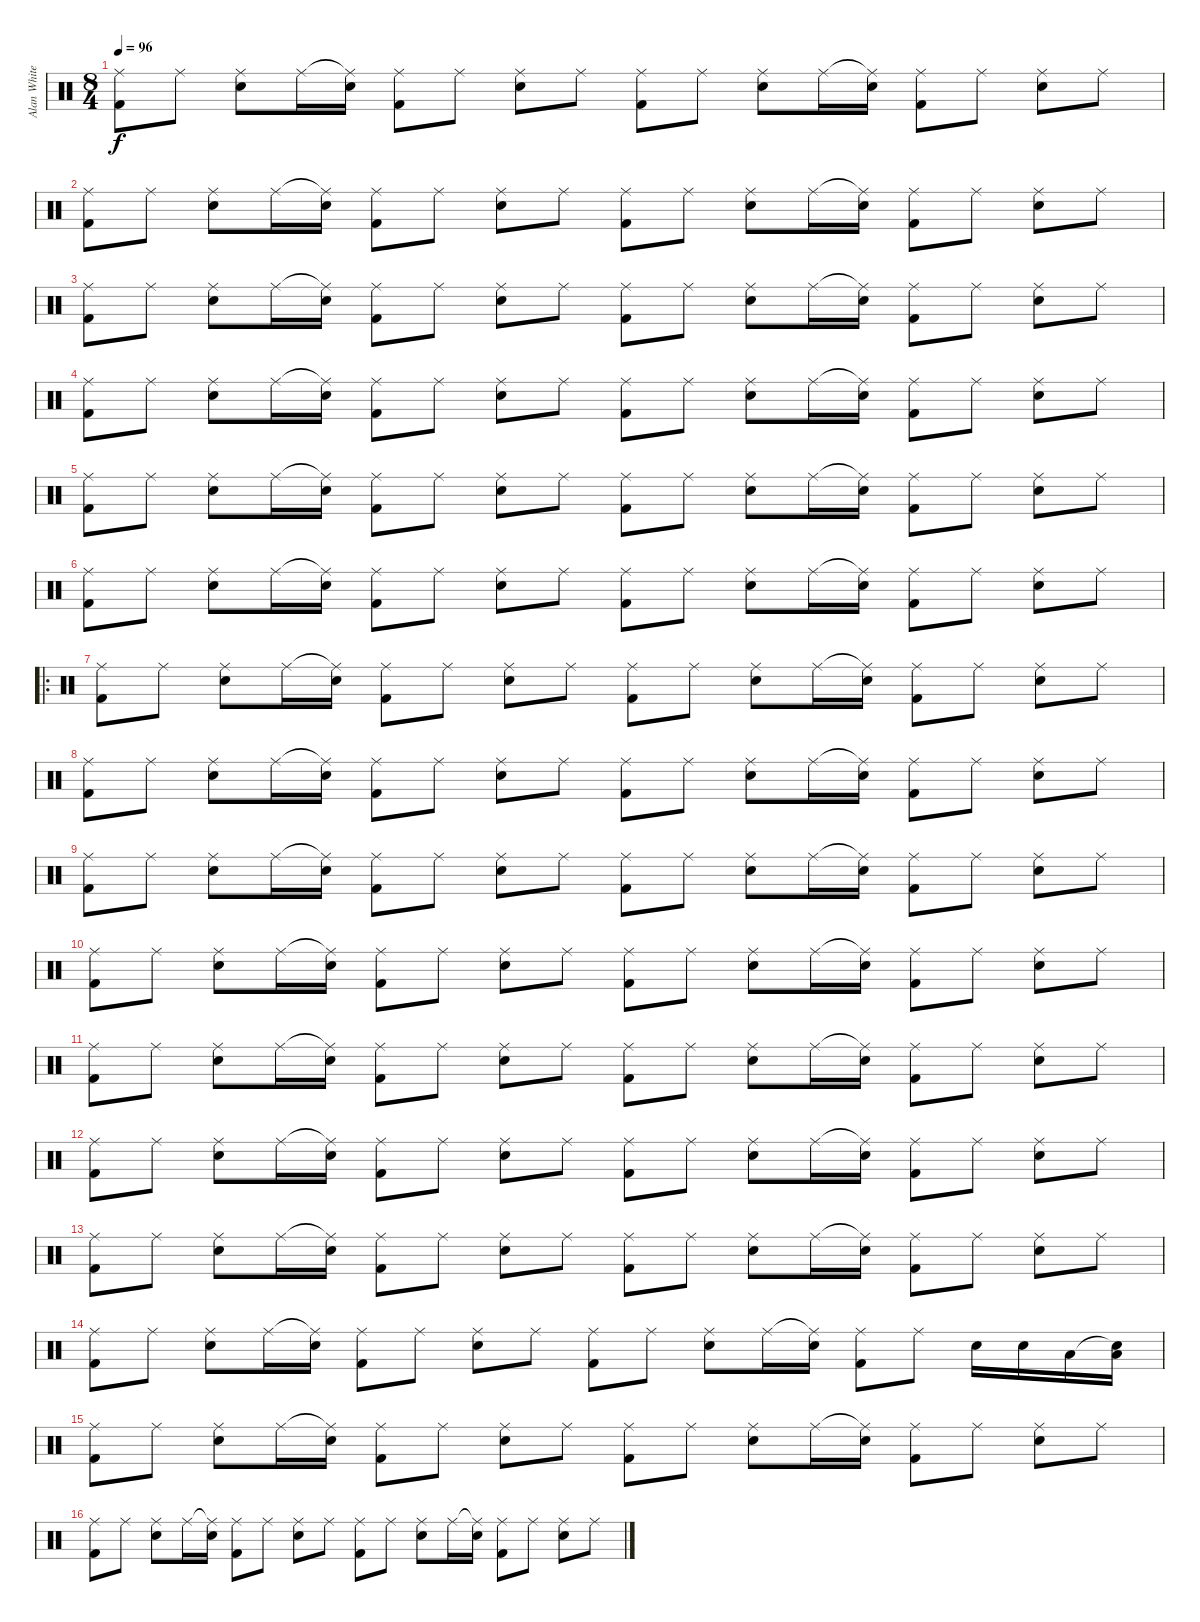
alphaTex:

\track ("Alan White" "Alan White") {instrument percussion}
\staff {score}
\articulation defaults
\ts (8 4)
\tempo 96
\clef neutral
\ks c
("Ride (middle)" "Kick (hit) 2").8{dy f} "Ride (middle)".8 ("Ride (middle)" "Electric Snare (hit)").8 "Ride (middle)".16 ("Ride (middle)"{t} "Electric Snare (hit)").16 ("Ride (middle)" "Kick (hit) 2").8 "Ride (middle)".8 ("Ride (middle)" "Electric Snare (hit)").8 "Ride (middle)".8 ("Ride (middle)" "Kick (hit) 2").8 "Ride (middle)".8 ("Ride (middle)" "Electric Snare (hit)").8 "Ride (middle)".16 ("Ride (middle)"{t} "Electric Snare (hit)").16 ("Ride (middle)" "Kick (hit) 2").8 "Ride (middle)".8 ("Ride (middle)" "Electric Snare (hit)").8 "Ride (middle)".8 |
("Ride (middle)" "Kick (hit) 2").8 "Ride (middle)".8 ("Ride (middle)" "Electric Snare (hit)").8 "Ride (middle)".16 ("Ride (middle)"{t} "Electric Snare (hit)").16 ("Ride (middle)" "Kick (hit) 2").8 "Ride (middle)".8 ("Ride (middle)" "Electric Snare (hit)").8 "Ride (middle)".8 ("Ride (middle)" "Kick (hit) 2").8 "Ride (middle)".8 ("Ride (middle)" "Electric Snare (hit)").8 "Ride (middle)".16 ("Ride (middle)"{t} "Electric Snare (hit)").16 ("Ride (middle)" "Kick (hit) 2").8 "Ride (middle)".8 ("Ride (middle)" "Electric Snare (hit)").8 "Ride (middle)".8 |
("Ride (middle)" "Kick (hit) 2").8 "Ride (middle)".8 ("Ride (middle)" "Electric Snare (hit)").8 "Ride (middle)".16 ("Ride (middle)"{t} "Electric Snare (hit)").16 ("Ride (middle)" "Kick (hit) 2").8 "Ride (middle)".8 ("Ride (middle)" "Electric Snare (hit)").8 "Ride (middle)".8 ("Ride (middle)" "Kick (hit) 2").8 "Ride (middle)".8 ("Ride (middle)" "Electric Snare (hit)").8 "Ride (middle)".16 ("Ride (middle)"{t} "Electric Snare (hit)").16 ("Ride (middle)" "Kick (hit) 2").8 "Ride (middle)".8 ("Ride (middle)" "Electric Snare (hit)").8 "Ride (middle)".8 |
("Ride (middle)" "Kick (hit) 2").8 "Ride (middle)".8 ("Ride (middle)" "Electric Snare (hit)").8 "Ride (middle)".16 ("Ride (middle)"{t} "Electric Snare (hit)").16 ("Ride (middle)" "Kick (hit) 2").8 "Ride (middle)".8 ("Ride (middle)" "Electric Snare (hit)").8 "Ride (middle)".8 ("Ride (middle)" "Kick (hit) 2").8 "Ride (middle)".8 ("Ride (middle)" "Electric Snare (hit)").8 "Ride (middle)".16 ("Ride (middle)"{t} "Electric Snare (hit)").16 ("Ride (middle)" "Kick (hit) 2").8 "Ride (middle)".8 ("Ride (middle)" "Electric Snare (hit)").8 "Ride (middle)".8 |
("Ride (middle)" "Kick (hit) 2").8 "Ride (middle)".8 ("Ride (middle)" "Electric Snare (hit)").8 "Ride (middle)".16 ("Ride (middle)"{t} "Electric Snare (hit)").16 ("Ride (middle)" "Kick (hit) 2").8 "Ride (middle)".8 ("Ride (middle)" "Electric Snare (hit)").8 "Ride (middle)".8 ("Ride (middle)" "Kick (hit) 2").8 "Ride (middle)".8 ("Ride (middle)" "Electric Snare (hit)").8 "Ride (middle)".16 ("Ride (middle)"{t} "Electric Snare (hit)").16 ("Ride (middle)" "Kick (hit) 2").8 "Ride (middle)".8 ("Ride (middle)" "Electric Snare (hit)").8 "Ride (middle)".8 |
("Ride (middle)" "Kick (hit) 2").8 "Ride (middle)".8 ("Ride (middle)" "Electric Snare (hit)").8 "Ride (middle)".16 ("Ride (middle)"{t} "Electric Snare (hit)").16 ("Ride (middle)" "Kick (hit) 2").8 "Ride (middle)".8 ("Ride (middle)" "Electric Snare (hit)").8 "Ride (middle)".8 ("Ride (middle)" "Kick (hit) 2").8 "Ride (middle)".8 ("Ride (middle)" "Electric Snare (hit)").8 "Ride (middle)".16 ("Ride (middle)"{t} "Electric Snare (hit)").16 ("Ride (middle)" "Kick (hit) 2").8 "Ride (middle)".8 ("Ride (middle)" "Electric Snare (hit)").8 "Ride (middle)".8 |
\ro
("Ride (middle)" "Kick (hit) 2").8 "Ride (middle)".8 ("Ride (middle)" "Electric Snare (hit)").8 "Ride (middle)".16 ("Ride (middle)"{t} "Electric Snare (hit)").16 ("Ride (middle)" "Kick (hit) 2").8 "Ride (middle)".8 ("Ride (middle)" "Electric Snare (hit)").8 "Ride (middle)".8 ("Ride (middle)" "Kick (hit) 2").8 "Ride (middle)".8 ("Ride (middle)" "Electric Snare (hit)").8 "Ride (middle)".16 ("Ride (middle)"{t} "Electric Snare (hit)").16 ("Ride (middle)" "Kick (hit) 2").8 "Ride (middle)".8 ("Ride (middle)" "Electric Snare (hit)").8 "Ride (middle)".8 |
("Ride (middle)" "Kick (hit) 2").8 "Ride (middle)".8 ("Ride (middle)" "Electric Snare (hit)").8 "Ride (middle)".16 ("Ride (middle)"{t} "Electric Snare (hit)").16 ("Ride (middle)" "Kick (hit) 2").8 "Ride (middle)".8 ("Ride (middle)" "Electric Snare (hit)").8 "Ride (middle)".8 ("Ride (middle)" "Kick (hit) 2").8 "Ride (middle)".8 ("Ride (middle)" "Electric Snare (hit)").8 "Ride (middle)".16 ("Ride (middle)"{t} "Electric Snare (hit)").16 ("Ride (middle)" "Kick (hit) 2").8 "Ride (middle)".8 ("Ride (middle)" "Electric Snare (hit)").8 "Ride (middle)".8 |
("Ride (middle)" "Kick (hit) 2").8 "Ride (middle)".8 ("Ride (middle)" "Electric Snare (hit)").8 "Ride (middle)".16 ("Ride (middle)"{t} "Electric Snare (hit)").16 ("Ride (middle)" "Kick (hit) 2").8 "Ride (middle)".8 ("Ride (middle)" "Electric Snare (hit)").8 "Ride (middle)".8 ("Ride (middle)" "Kick (hit) 2").8 "Ride (middle)".8 ("Ride (middle)" "Electric Snare (hit)").8 "Ride (middle)".16 ("Ride (middle)"{t} "Electric Snare (hit)").16 ("Ride (middle)" "Kick (hit) 2").8 "Ride (middle)".8 ("Ride (middle)" "Electric Snare (hit)").8 "Ride (middle)".8 |
("Ride (middle)" "Kick (hit) 2").8 "Ride (middle)".8 ("Ride (middle)" "Electric Snare (hit)").8 "Ride (middle)".16 ("Ride (middle)"{t} "Electric Snare (hit)").16 ("Ride (middle)" "Kick (hit) 2").8 "Ride (middle)".8 ("Ride (middle)" "Electric Snare (hit)").8 "Ride (middle)".8 ("Ride (middle)" "Kick (hit) 2").8 "Ride (middle)".8 ("Ride (middle)" "Electric Snare (hit)").8 "Ride (middle)".16 ("Ride (middle)"{t} "Electric Snare (hit)").16 ("Ride (middle)" "Kick (hit) 2").8 "Ride (middle)".8 ("Ride (middle)" "Electric Snare (hit)").8 "Ride (middle)".8 |
("Ride (middle)" "Kick (hit) 2").8 "Ride (middle)".8 ("Ride (middle)" "Electric Snare (hit)").8 "Ride (middle)".16 ("Ride (middle)"{t} "Electric Snare (hit)").16 ("Ride (middle)" "Kick (hit) 2").8 "Ride (middle)".8 ("Ride (middle)" "Electric Snare (hit)").8 "Ride (middle)".8 ("Ride (middle)" "Kick (hit) 2").8 "Ride (middle)".8 ("Ride (middle)" "Electric Snare (hit)").8 "Ride (middle)".16 ("Ride (middle)"{t} "Electric Snare (hit)").16 ("Ride (middle)" "Kick (hit) 2").8 "Ride (middle)".8 ("Ride (middle)" "Electric Snare (hit)").8 "Ride (middle)".8 |
("Ride (middle)" "Kick (hit) 2").8 "Ride (middle)".8 ("Ride (middle)" "Electric Snare (hit)").8 "Ride (middle)".16 ("Ride (middle)"{t} "Electric Snare (hit)").16 ("Ride (middle)" "Kick (hit) 2").8 "Ride (middle)".8 ("Ride (middle)" "Electric Snare (hit)").8 "Ride (middle)".8 ("Ride (middle)" "Kick (hit) 2").8 "Ride (middle)".8 ("Ride (middle)" "Electric Snare (hit)").8 "Ride (middle)".16 ("Ride (middle)"{t} "Electric Snare (hit)").16 ("Ride (middle)" "Kick (hit) 2").8 "Ride (middle)".8 ("Ride (middle)" "Electric Snare (hit)").8 "Ride (middle)".8 |
("Ride (middle)" "Kick (hit) 2").8 "Ride (middle)".8 ("Ride (middle)" "Electric Snare (hit)").8 "Ride (middle)".16 ("Ride (middle)"{t} "Electric Snare (hit)").16 ("Ride (middle)" "Kick (hit) 2").8 "Ride (middle)".8 ("Ride (middle)" "Electric Snare (hit)").8 "Ride (middle)".8 ("Ride (middle)" "Kick (hit) 2").8 "Ride (middle)".8 ("Ride (middle)" "Electric Snare (hit)").8 "Ride (middle)".16 ("Ride (middle)"{t} "Electric Snare (hit)").16 ("Ride (middle)" "Kick (hit) 2").8 "Ride (middle)".8 ("Ride (middle)" "Electric Snare (hit)").8 "Ride (middle)".8 |
("Ride (middle)" "Kick (hit) 2").8 "Ride (middle)".8 ("Ride (middle)" "Electric Snare (hit)").8 "Ride (middle)".16 ("Ride (middle)"{t} "Electric Snare (hit)").16 ("Ride (middle)" "Kick (hit) 2").8 "Ride (middle)".8 ("Ride (middle)" "Electric Snare (hit)").8 "Ride (middle)".8 ("Ride (middle)" "Kick (hit) 2").8 "Ride (middle)".8 ("Ride (middle)" "Electric Snare (hit)").8 "Ride (middle)".16 ("Ride (middle)"{t} "Electric Snare (hit)").16 ("Ride (middle)" "Kick (hit) 2").8 "Ride (middle)".8 "Electric Snare (hit)".16 "Electric Snare (hit)".16 "Low Floor Tom (hit)".16 ("Snare (hit)"{t} "Low Floor Tom (hit)").16 |
("Ride (middle)" "Kick (hit) 2").8 "Ride (middle)".8 ("Ride (middle)" "Electric Snare (hit)").8 "Ride (middle)".16 ("Ride (middle)"{t} "Electric Snare (hit)").16 ("Ride (middle)" "Kick (hit) 2").8 "Ride (middle)".8 ("Ride (middle)" "Electric Snare (hit)").8 "Ride (middle)".8 ("Ride (middle)" "Kick (hit) 2").8 "Ride (middle)".8 ("Ride (middle)" "Electric Snare (hit)").8 "Ride (middle)".16 ("Ride (middle)"{t} "Electric Snare (hit)").16 ("Ride (middle)" "Kick (hit) 2").8 "Ride (middle)".8 ("Ride (middle)" "Electric Snare (hit)").8 "Ride (middle)".8 |
("Ride (middle)" "Kick (hit) 2").8 "Ride (middle)".8 ("Ride (middle)" "Electric Snare (hit)").8 "Ride (middle)".16 ("Ride (middle)"{t} "Electric Snare (hit)").16 ("Ride (middle)" "Kick (hit) 2").8 "Ride (middle)".8 ("Ride (middle)" "Electric Snare (hit)").8 "Ride (middle)".8 ("Ride (middle)" "Kick (hit) 2").8 "Ride (middle)".8 ("Ride (middle)" "Electric Snare (hit)").8 "Ride (middle)".16 ("Ride (middle)"{t} "Electric Snare (hit)").16 ("Ride (middle)" "Kick (hit) 2").8 "Ride (middle)".8 ("Ride (middle)" "Electric Snare (hit)").8 "Ride (middle)".8
